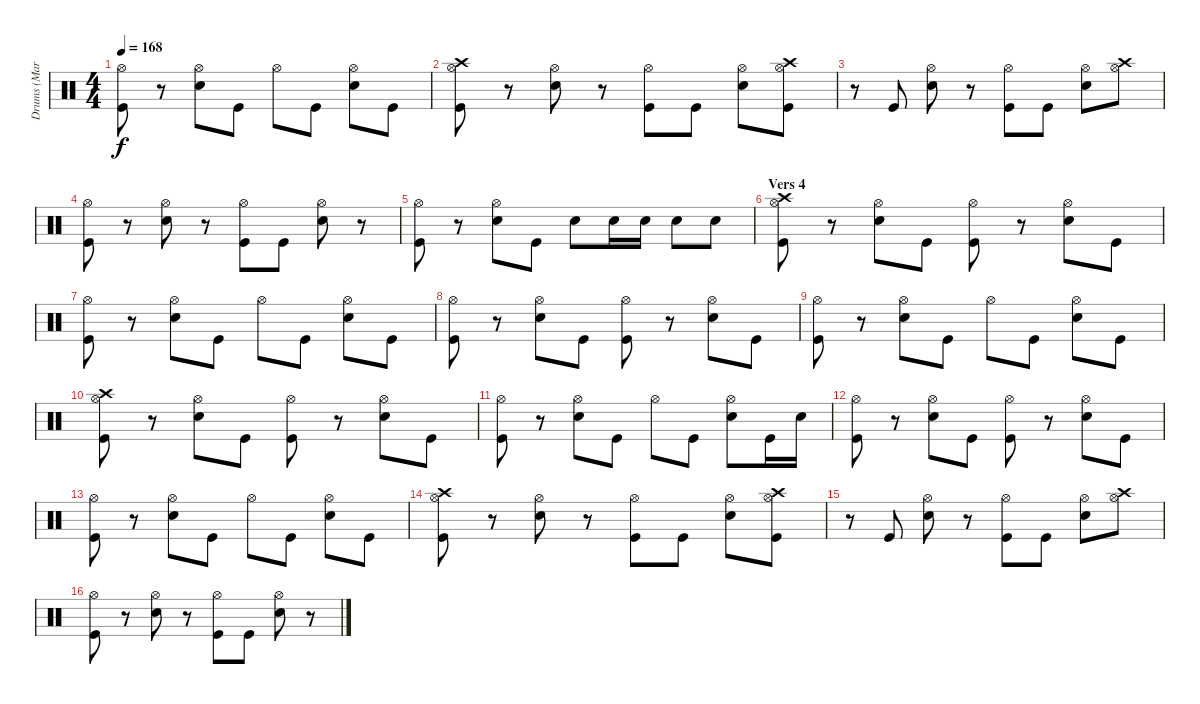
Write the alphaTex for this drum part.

\track ("Drums (Mark Michals)" "Drums (Mar") {instrument percussion}
\staff {score}
\articulation defaults
\ts (4 4)
\tempo 168
\clef neutral
\ks c
("Hi-Hat (open)" "Kick (hit)").8{dy f} r.8 ("Hi-Hat (open)" "Snare (hit) 2").8 "Kick (hit)".8 "Hi-Hat (open)".8 "Kick (hit)".8 ("Hi-Hat (open)" "Snare (hit) 2").8 "Kick (hit)".8 |
("Hi-Hat (open)" "Crash high (hit)" "Kick (hit)").8 r.8 ("Hi-Hat (open)" "Snare (hit) 2").8 r.8 ("Hi-Hat (open)" "Kick (hit)").8 "Kick (hit)".8 ("Hi-Hat (open)" "Snare (hit) 2").8 ("Hi-Hat (open)" "Crash high (hit)" "Kick (hit)").8 |
r.8 "Kick (hit)".8 ("Hi-Hat (open)" "Snare (hit) 2").8 r.8 ("Hi-Hat (open)" "Kick (hit)").8 "Kick (hit)".8 ("Hi-Hat (open)" "Snare (hit) 2").8 ("Hi-Hat (open)" "Crash high (hit)").8 |
("Hi-Hat (open)" "Kick (hit)").8 r.8 ("Hi-Hat (open)" "Snare (hit) 2").8 r.8 ("Hi-Hat (open)" "Kick (hit)").8 "Kick (hit)".8 ("Hi-Hat (open)" "Snare (hit) 2").8 r.8 |
("Hi-Hat (open)" "Kick (hit)").8 r.8 ("Hi-Hat (open)" "Snare (hit) 2").8 "Kick (hit)".8 "Snare (hit) 2".8 "Snare (hit) 2".16 "Snare (hit) 2".16 "Snare (hit) 2".8 "Snare (hit) 2".8 |
\section ("" "Vers 4")
("Hi-Hat (open)" "Crash high (hit)" "Kick (hit)").8 r.8 ("Hi-Hat (open)" "Snare (hit) 2").8 "Kick (hit)".8 ("Hi-Hat (open)" "Kick (hit)").8 r.8 ("Hi-Hat (open)" "Snare (hit) 2").8 "Kick (hit)".8 |
("Hi-Hat (open)" "Kick (hit)").8 r.8 ("Hi-Hat (open)" "Snare (hit) 2").8 "Kick (hit)".8 "Hi-Hat (open)".8 "Kick (hit)".8 ("Hi-Hat (open)" "Snare (hit) 2").8 "Kick (hit)".8 |
("Hi-Hat (open)" "Kick (hit)").8 r.8 ("Hi-Hat (open)" "Snare (hit) 2").8 "Kick (hit)".8 ("Hi-Hat (open)" "Kick (hit)").8 r.8 ("Hi-Hat (open)" "Snare (hit) 2").8 "Kick (hit)".8 |
("Hi-Hat (open)" "Kick (hit)").8 r.8 ("Hi-Hat (open)" "Snare (hit) 2").8 "Kick (hit)".8 "Hi-Hat (open)".8 "Kick (hit)".8 ("Hi-Hat (open)" "Snare (hit) 2").8 "Kick (hit)".8 |
("Hi-Hat (open)" "Crash high (hit)" "Kick (hit)").8 r.8 ("Hi-Hat (open)" "Snare (hit) 2").8 "Kick (hit)".8 ("Hi-Hat (open)" "Kick (hit)").8 r.8 ("Hi-Hat (open)" "Snare (hit) 2").8 "Kick (hit)".8 |
("Hi-Hat (open)" "Kick (hit)").8 r.8 ("Hi-Hat (open)" "Snare (hit) 2").8 "Kick (hit)".8 "Hi-Hat (open)".8 "Kick (hit)".8 ("Hi-Hat (open)" "Snare (hit) 2").8 "Kick (hit)".16 "Snare (hit) 2".16 |
("Hi-Hat (open)" "Kick (hit)").8 r.8 ("Hi-Hat (open)" "Snare (hit) 2").8 "Kick (hit)".8 ("Hi-Hat (open)" "Kick (hit)").8 r.8 ("Hi-Hat (open)" "Snare (hit) 2").8 "Kick (hit)".8 |
("Hi-Hat (open)" "Kick (hit)").8 r.8 ("Hi-Hat (open)" "Snare (hit) 2").8 "Kick (hit)".8 "Hi-Hat (open)".8 "Kick (hit)".8 ("Hi-Hat (open)" "Snare (hit) 2").8 "Kick (hit)".8 |
("Hi-Hat (open)" "Crash high (hit)" "Kick (hit)").8 r.8 ("Hi-Hat (open)" "Snare (hit) 2").8 r.8 ("Hi-Hat (open)" "Kick (hit)").8 "Kick (hit)".8 ("Hi-Hat (open)" "Snare (hit) 2").8 ("Hi-Hat (open)" "Crash high (hit)" "Kick (hit)").8 |
r.8 "Kick (hit)".8 ("Hi-Hat (open)" "Snare (hit) 2").8 r.8 ("Hi-Hat (open)" "Kick (hit)").8 "Kick (hit)".8 ("Hi-Hat (open)" "Snare (hit) 2").8 ("Hi-Hat (open)" "Crash high (hit)").8 |
("Hi-Hat (open)" "Kick (hit)").8 r.8 ("Hi-Hat (open)" "Snare (hit) 2").8 r.8 ("Hi-Hat (open)" "Kick (hit)").8 "Kick (hit)".8 ("Hi-Hat (open)" "Snare (hit) 2").8 r.8
